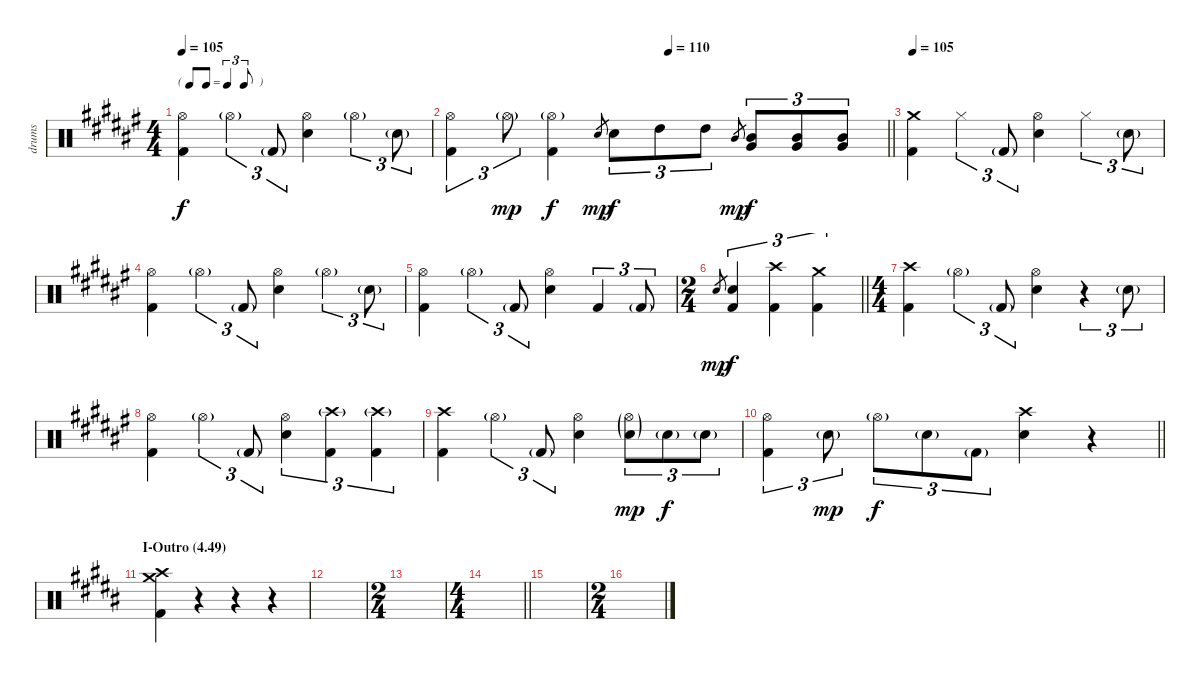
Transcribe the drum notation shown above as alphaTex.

\track ("drums" "drums") {instrument percussion}
\staff {score}
\articulation defaults
\ts (4 4)
\tf triplet8th
\tempo 105
\clef neutral
\ks d#minor
("Hi-Hat (open)" "Kick (hit) 2").4{dy f} "Hi-Hat (open)"{g}.4{tu (3 2)} "Kick (hit) 2"{g}.8{tu (3 2)} ("Hi-Hat (open)" "Electric Snare (hit)").4 "Hi-Hat (open)"{g}.4{tu (3 2)} "Electric Snare (hit)"{g}.8{tu (3 2)} |
\tempo (110 0.5)
\barLineRight lightlight
("Hi-Hat (open)" "Kick (hit) 2").4{tu (3 2)} "Hi-Hat (open)"{g}.8{tu (3 2) dy mp} ("Hi-Hat (open)"{g} "Kick (hit) 2").4{dy f} "Electric Snare (hit)".8{gr dy mp} "Electric Snare (hit)".8{tu (3 2) dy f} "High Tom (hit)".8{tu (3 2)} "High Tom (hit)".8{tu (3 2)} "Mid Tom (hit)".8{gr dy mp} ("Mid Tom (hit)" "Very Low Tom (hit)").8{tu (3 2) dy f} ("Mid Tom (hit)" "Very Low Tom (hit)").8{tu (3 2)} ("Mid Tom (hit)" "Very Low Tom (hit)").8{tu (3 2)} |
\tempo 105
("Crash medium (hit)" "Kick (hit) 2").4 "Hi-Hat (closed)".4{tu (3 2)} "Kick (hit) 2"{g}.8{tu (3 2)} ("Hi-Hat (open)" "Electric Snare (hit)").4 "Hi-Hat (closed)".4{tu (3 2)} "Electric Snare (hit)"{g}.8{tu (3 2)} |
\ks f#
("Hi-Hat (open)" "Kick (hit) 2").4 "Hi-Hat (open)"{g}.4{tu (3 2)} "Kick (hit) 2"{g}.8{tu (3 2)} ("Hi-Hat (open)" "Electric Snare (hit)").4 "Hi-Hat (open)"{g}.4{tu (3 2)} "Electric Snare (hit)"{g}.8{tu (3 2)} |
\ks d#minor
("Hi-Hat (open)" "Kick (hit) 2").4 "Hi-Hat (open)"{g}.4{tu (3 2)} "Kick (hit) 2"{g}.8{tu (3 2)} ("Hi-Hat (open)" "Electric Snare (hit)").4 "Kick (hit) 2".4{tu (3 2)} "Kick (hit) 2"{g}.8{tu (3 2)} |
\ts (2 4)
\barLineRight lightlight
\ks f# "Electric Snare (hit)".8{gr dy mp}
("Electric Snare (hit)" "Kick (hit) 2").4{tu (3 2) dy f} ("Crash high (hit)" "Kick (hit) 2").4{tu (3 2)} ("Crash medium (hit)" "Kick (hit) 2").4{tu (3 2)} |
\ts (4 4)
\ks d#minor
("Crash high (hit)" "Kick (hit) 2").4 "Hi-Hat (open)"{g}.4{tu (3 2)} "Kick (hit) 2"{g}.8{tu (3 2)} ("Hi-Hat (open)" "Electric Snare (hit)").4 r.4{tu (3 2)} "Electric Snare (hit)"{g}.8{tu (3 2)} |
("Hi-Hat (open)" "Kick (hit) 2").4 "Hi-Hat (open)"{g}.4{tu (3 2)} "Kick (hit) 2"{g}.8{tu (3 2)} ("Hi-Hat (open)" "Electric Snare (hit)").4{tu (3 2)} ("Crash high (hit)"{g} "Kick (hit) 2").4{tu (3 2)} ("Crash high (hit)"{g} "Kick (hit) 2").4{tu (3 2)} |
("Crash high (hit)" "Kick (hit) 2").4 "Hi-Hat (open)"{g}.4{tu (3 2)} "Kick (hit) 2"{g}.8{tu (3 2)} ("Hi-Hat (open)" "Electric Snare (hit)").4 ("Hi-Hat (open)"{g} "Electric Snare (hit)"{g}).8{tu (3 2) dy mp} "Electric Snare (hit)"{g}.8{tu (3 2) dy f} "Electric Snare (hit)"{g}.8{tu (3 2)} |
\barLineRight lightlight
("Hi-Hat (open)" "Kick (hit) 2").4{tu (3 2)} "Electric Snare (hit)"{g}.8{tu (3 2) dy mp} "Hi-Hat (open)"{g}.8{tu (3 2) dy f} "Electric Snare (hit)"{g}.8{tu (3 2)} "Kick (hit) 2"{g}.8{tu (3 2)} ("Crash high (hit)" "Electric Snare (hit)").4 r.4 |
\section ("" "I-Outro (4.49)")
\ks b
("Crash high (hit)" "Crash medium (hit)" "Kick (hit) 2").4 r.4 r.4 r.4 |
|
\ts (2 4)
|
\ts (4 4)
\barLineRight lightlight
|
|
\ts (2 4)
